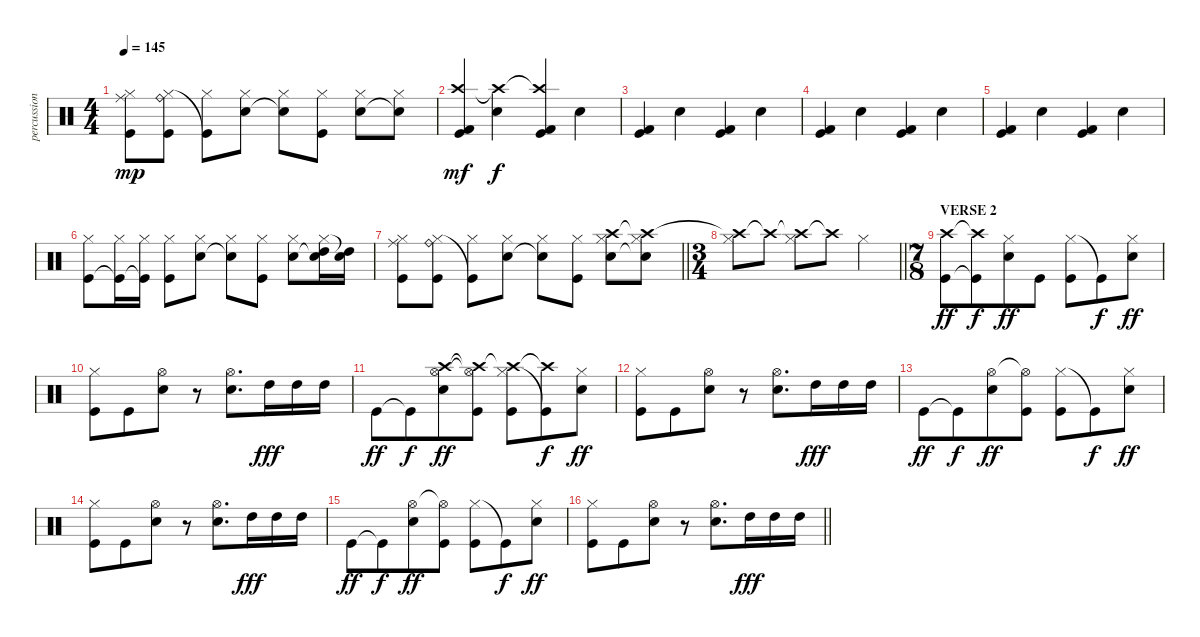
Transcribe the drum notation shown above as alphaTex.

\track ("percussion" "percussion") {instrument percussion}
\staff {score}
\articulation defaults
\ts (4 4)
\tempo 145
\clef neutral
\ks c
("Ride (middle)" "Hi-Hat (closed)" "Kick (hit)").8{dy mp} ("Ride (bell)" "Hi-Hat (closed)" "Kick (hit)").8 ("Hi-Hat (closed)" "Kick (hit)"{t}).8 ("Hi-Hat (closed)" "Electric Snare (hit)").8 ("Hi-Hat (closed)" "Electric Snare (hit)"{t}).8 ("Hi-Hat (closed)" "Kick (hit)").8 ("Hi-Hat (closed)" "Electric Snare (hit)").8 ("Hi-Hat (closed)" "Electric Snare (hit)"{t}).8 |
("Crash high (hit)" "Kick (hit) 2" "Kick (hit)").4{dy mf} ("Crash high (hit)"{t} "Electric Snare (hit)").4{dy f} ("Crash high (hit)"{t} "Kick (hit) 2" "Kick (hit)").4 "Electric Snare (hit)".4 |
("Kick (hit) 2" "Kick (hit)").4 "Electric Snare (hit)".4 ("Kick (hit) 2" "Kick (hit)").4 "Electric Snare (hit)".4 |
("Kick (hit) 2" "Kick (hit)").4 "Electric Snare (hit)".4 ("Kick (hit) 2" "Kick (hit)").4 "Electric Snare (hit)".4 |
("Kick (hit) 2" "Kick (hit)").4 "Electric Snare (hit)".4 ("Kick (hit) 2" "Kick (hit)").4 "Electric Snare (hit)".4 |
("Hi-Hat (closed)" "Kick (hit)").8 ("Hi-Hat (closed)" "Kick (hit)"{t}).16 ("Hi-Hat (closed)" "Kick (hit)"{t}).16 ("Hi-Hat (closed)" "Kick (hit)").8 ("Hi-Hat (closed)" "Electric Snare (hit)").8 ("Hi-Hat (closed)" "Electric Snare (hit)"{t}).8 ("Hi-Hat (closed)" "Kick (hit)").8 ("Hi-Hat (closed)" "Electric Snare (hit)").8 ("Hi-Hat (closed)" "Electric Snare (hit)"{t} "High Tom (hit)").16 ("Electric Snare (hit)"{t} "High Tom (hit)").16 |
\barLineRight lightlight
("Ride (middle)" "Hi-Hat (closed)" "Kick (hit)").8 ("Ride (bell)" "Hi-Hat (closed)" "Kick (hit)").8 ("Hi-Hat (closed)" "Kick (hit)"{t}).8 ("Hi-Hat (closed)" "Electric Snare (hit)").8 ("Hi-Hat (closed)" "Electric Snare (hit)"{t}).8 ("Hi-Hat (closed)" "Kick (hit)").8 ("Crash high (hit)" "Hi-Hat (closed)" "Electric Snare (hit)").8 ("Crash high (hit)"{t} "Hi-Hat (closed)" "Electric Snare (hit)"{t}).8 |
\ts (3 4)
\barLineRight lightlight
("Crash high (hit)"{t} "Hi-Hat (closed)").8 "Crash high (hit)"{t}.8 ("Crash high (hit)"{t} "Hi-Hat (closed)").8 "Crash high (hit)"{t}.8 "Hi-Hat (closed)".4 |
\ts (7 8)
\section ("" "VERSE 2")
("Crash high (hit)" "Kick (hit)").8{dy ff} ("Crash high (hit)"{t} "Kick (hit)"{t}).8{dy f} ("Hi-Hat (closed)" "Electric Snare (hit)").8{dy ff} "Kick (hit)".8 ("Hi-Hat (closed)" "Kick (hit)").8 "Kick (hit)"{t}.8{dy f} ("Hi-Hat (closed)" "Electric Snare (hit)").8{dy ff} |
("Hi-Hat (closed)" "Kick (hit)").8 "Kick (hit)".8 ("Hi-Hat (open)" "Electric Snare (hit)").8 r.8 ("Hi-Hat (open)" "Electric Snare (hit)").8{d} "High Tom (hit)".16{dy fff} "High Tom (hit)".16 "High Tom (hit)".16 |
"Kick (hit)".8{dy ff} "Kick (hit)"{t}.8{dy f} ("Crash high (hit)" "Hi-Hat (open)" "Electric Snare (hit)").8{dy ff} ("Crash high (hit)"{t} "Hi-Hat (open)"{t} "Kick (hit)").8 ("Crash high (hit)"{t} "Hi-Hat (closed)" "Kick (hit)").8 ("Crash high (hit)"{t} "Kick (hit)"{t}).8{dy f} ("Hi-Hat (closed)" "Electric Snare (hit)").8{dy ff} |
("Hi-Hat (closed)" "Kick (hit)").8 "Kick (hit)".8 ("Hi-Hat (open)" "Electric Snare (hit)").8 r.8 ("Hi-Hat (open)" "Electric Snare (hit)").8{d} "High Tom (hit)".16{dy fff} "High Tom (hit)".16 "High Tom (hit)".16 |
"Kick (hit)".8{dy ff} "Kick (hit)"{t}.8{dy f} ("Hi-Hat (open)" "Electric Snare (hit)").8{dy ff} ("Hi-Hat (open)"{t} "Kick (hit)").8 ("Hi-Hat (closed)" "Kick (hit)").8 "Kick (hit)"{t}.8{dy f} ("Hi-Hat (closed)" "Electric Snare (hit)").8{dy ff} |
("Hi-Hat (closed)" "Kick (hit)").8 "Kick (hit)".8 ("Hi-Hat (open)" "Electric Snare (hit)").8 r.8 ("Hi-Hat (open)" "Electric Snare (hit)").8{d} "High Tom (hit)".16{dy fff} "High Tom (hit)".16 "High Tom (hit)".16 |
"Kick (hit)".8{dy ff} "Kick (hit)"{t}.8{dy f} ("Hi-Hat (open)" "Electric Snare (hit)").8{dy ff} ("Hi-Hat (open)"{t} "Kick (hit)").8 ("Hi-Hat (closed)" "Kick (hit)").8 "Kick (hit)"{t}.8{dy f} ("Hi-Hat (closed)" "Electric Snare (hit)").8{dy ff} |
\barLineRight lightlight
("Hi-Hat (closed)" "Kick (hit)").8 "Kick (hit)".8 ("Hi-Hat (open)" "Electric Snare (hit)").8 r.8 ("Hi-Hat (open)" "Electric Snare (hit)").8{d} "High Tom (hit)".16{dy fff} "High Tom (hit)".16 "High Tom (hit)".16
